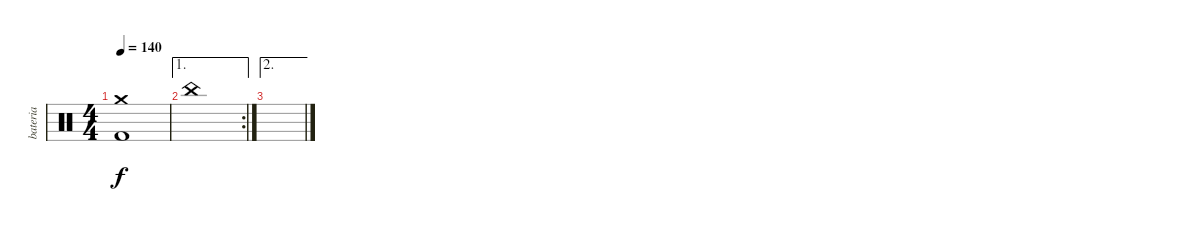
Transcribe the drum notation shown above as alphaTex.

\track ("bateria" "bateria") {instrument percussion}
\staff {score}
\articulation defaults
\ts (4 4)
\tempo 140
\clef neutral
\ks c
("Kick (hit) 2" "Crash medium (hit)").1{dy f} |
\ae 1
\rc 2 "China (hit)".1
|
\ae 2
